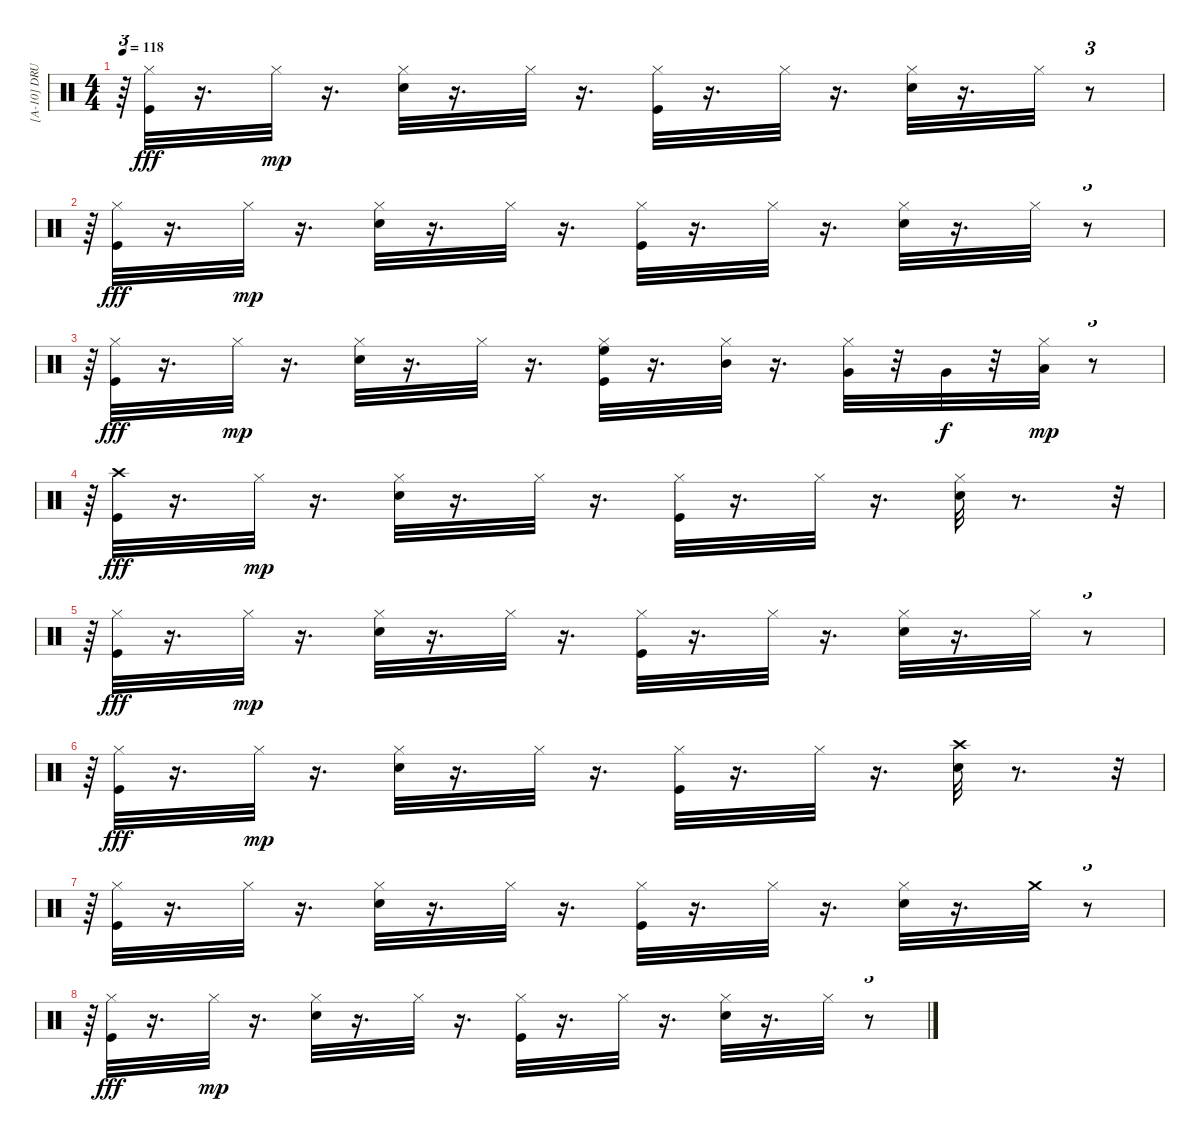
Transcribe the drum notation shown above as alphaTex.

\track ("[A-10] DRUM" "[A-10] DRU") {instrument percussion}
\staff {score}
\articulation defaults
\ts (4 4)
\tempo 118
\clef neutral
\ks c
r.64{tu (3 2) dy mp} ("Hi-Hat (closed)" "Kick (hit)").32{dy fff} r.16{d} "Hi-Hat (closed)".32{dy mp} r.16{d} ("Snare (hit) 2" "Hi-Hat (closed)").32 r.16{d} "Hi-Hat (closed)".32 r.16{d} ("Kick (hit)" "Hi-Hat (closed)").32 r.16{d} "Hi-Hat (closed)".32 r.16{d} ("Snare (hit) 2" "Hi-Hat (closed)").32 r.16{d} "Hi-Hat (closed)".32 r.8{tu (3 2)} |
r.64{tu (3 2)} ("Hi-Hat (closed)" "Kick (hit)").32{dy fff} r.16{d} "Hi-Hat (closed)".32{dy mp} r.16{d} ("Snare (hit) 2" "Hi-Hat (closed)").32 r.16{d} "Hi-Hat (closed)".32 r.16{d} ("Kick (hit)" "Hi-Hat (closed)").32 r.16{d} "Hi-Hat (closed)".32 r.16{d} ("Snare (hit) 2" "Hi-Hat (closed)").32 r.16{d} "Hi-Hat (closed)".32 r.8{tu (3 2)} |
r.64{tu (3 2)} ("Hi-Hat (closed)" "Kick (hit)").32{dy fff} r.16{d} "Hi-Hat (closed)".32{dy mp} r.16{d} ("Snare (hit) 2" "Hi-Hat (closed)").32 r.16{d} "Hi-Hat (closed)".32 r.16{d} ("Kick (hit)" "Hi-Hat (closed)" "High Floor Tom (hit)").32 r.16{d} ("Mid Tom (hit)" "Hi-Hat (closed)").32 r.16{d} ("Very Low Tom (hit)" "Hi-Hat (closed)").32 r.32 "Very Low Tom (hit)".32{dy f} r.32 ("Low Floor Tom (hit)" "Hi-Hat (closed)").32{dy mp} r.8{tu (3 2)} |
r.64{tu (3 2)} ("Kick (hit)" "Crash high (hit)").32{dy fff} r.16{d} "Hi-Hat (closed)".32{dy mp} r.16{d} ("Snare (hit) 2" "Hi-Hat (closed)").32 r.16{d} "Hi-Hat (closed)".32 r.16{d} ("Kick (hit)" "Hi-Hat (closed)").32 r.16{d} "Hi-Hat (closed)".32 r.16{d} ("Snare (hit) 2" "Hi-Hat (closed)").32 r.8{d} r.32{tu (3 2)} |
r.64{tu (3 2)} ("Hi-Hat (closed)" "Kick (hit)").32{dy fff} r.16{d} "Hi-Hat (closed)".32{dy mp} r.16{d} ("Snare (hit) 2" "Hi-Hat (closed)").32 r.16{d} "Hi-Hat (closed)".32 r.16{d} ("Kick (hit)" "Hi-Hat (closed)").32 r.16{d} "Hi-Hat (closed)".32 r.16{d} ("Snare (hit) 2" "Hi-Hat (closed)").32 r.16{d} "Hi-Hat (closed)".32 r.8{tu (3 2)} |
r.64{tu (3 2)} ("Hi-Hat (closed)" "Kick (hit)").32{dy fff} r.16{d} "Hi-Hat (closed)".32{dy mp} r.16{d} ("Snare (hit) 2" "Hi-Hat (closed)").32 r.16{d} "Hi-Hat (closed)".32 r.16{d} ("Kick (hit)" "Hi-Hat (closed)").32 r.16{d} "Hi-Hat (closed)".32 r.16{d} ("Snare (hit) 2" "Crash high (hit)").32 r.8{d} r.32{tu (3 2)} |
r.64{tu (3 2)} ("Kick (hit)" "Hi-Hat (closed)").32 r.16{d} "Hi-Hat (closed)".32 r.16{d} ("Snare (hit) 2" "Hi-Hat (closed)").32 r.16{d} "Hi-Hat (closed)".32 r.16{d} ("Kick (hit)" "Hi-Hat (closed)").32 r.16{d} "Hi-Hat (closed)".32 r.16{d} ("Snare (hit) 2" "Hi-Hat (closed)").32 r.16{d} "Crash medium (hit)".32 r.8{tu (3 2)} |
r.64{tu (3 2)} ("Hi-Hat (closed)" "Kick (hit)").32{dy fff} r.16{d} "Hi-Hat (closed)".32{dy mp} r.16{d} ("Snare (hit) 2" "Hi-Hat (closed)").32 r.16{d} "Hi-Hat (closed)".32 r.16{d} ("Kick (hit)" "Hi-Hat (closed)").32 r.16{d} "Hi-Hat (closed)".32 r.16{d} ("Snare (hit) 2" "Hi-Hat (closed)").32 r.16{d} "Hi-Hat (closed)".32 r.8{tu (3 2)}
